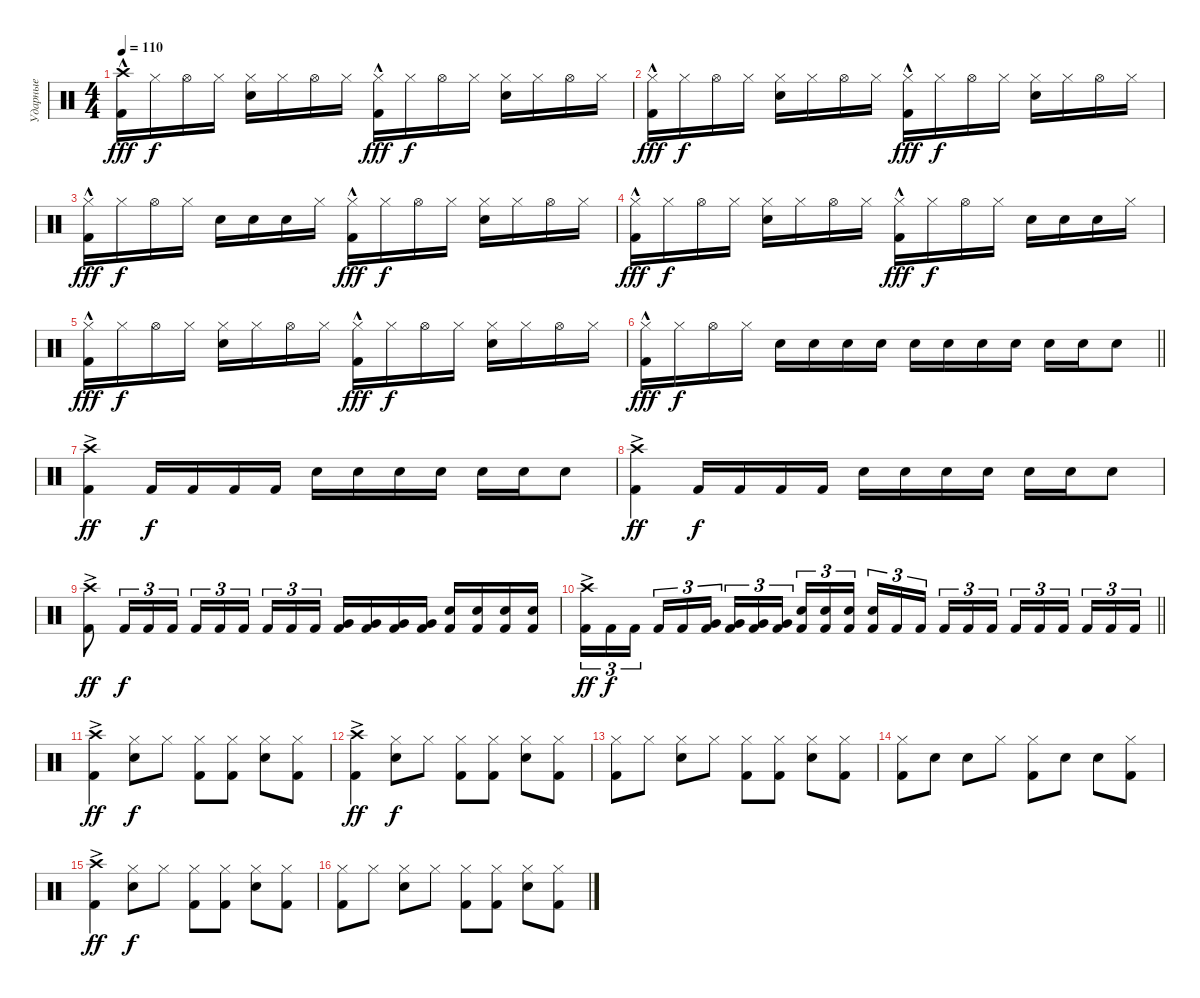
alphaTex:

\track ("Ударные" "Ударные") {instrument percussion}
\staff {score}
\articulation defaults
\ts (4 4)
\tempo 110
\clef neutral
\ks c
("Kick (hit) 2"{hac} "Crash high (hit)").16{dy fff} "Hi-Hat (closed)".16{dy f} "Hi-Hat (open)".16 "Hi-Hat (closed)".16 ("Snare (hit) 2" "Hi-Hat (closed)").16 "Hi-Hat (closed)".16 "Hi-Hat (open)".16 "Hi-Hat (closed)".16 ("Kick (hit) 2"{hac} "Hi-Hat (closed)").16{dy fff} "Hi-Hat (closed)".16{dy f} "Hi-Hat (open)".16 "Hi-Hat (closed)".16 ("Snare (hit) 2" "Hi-Hat (closed)").16 "Hi-Hat (closed)".16 "Hi-Hat (open)".16 "Hi-Hat (closed)".16 |
("Kick (hit) 2"{hac} "Hi-Hat (closed)").16{dy fff} "Hi-Hat (closed)".16{dy f} "Hi-Hat (open)".16 "Hi-Hat (closed)".16 ("Snare (hit) 2" "Hi-Hat (closed)").16 "Hi-Hat (closed)".16 "Hi-Hat (open)".16 "Hi-Hat (closed)".16 ("Kick (hit) 2"{hac} "Hi-Hat (closed)").16{dy fff} "Hi-Hat (closed)".16{dy f} "Hi-Hat (open)".16 "Hi-Hat (closed)".16 ("Snare (hit) 2" "Hi-Hat (closed)").16 "Hi-Hat (closed)".16 "Hi-Hat (open)".16 "Hi-Hat (closed)".16 |
("Kick (hit) 2"{hac} "Hi-Hat (closed)").16{dy fff} "Hi-Hat (closed)".16{dy f} "Hi-Hat (open)".16 "Hi-Hat (closed)".16 "Snare (hit) 2".16 "Snare (hit) 2".16 "Snare (hit) 2".16 "Hi-Hat (closed)".16 ("Kick (hit) 2"{hac} "Hi-Hat (closed)").16{dy fff} "Hi-Hat (closed)".16{dy f} "Hi-Hat (open)".16 "Hi-Hat (closed)".16 ("Snare (hit) 2" "Hi-Hat (closed)").16 "Hi-Hat (closed)".16 "Hi-Hat (open)".16 "Hi-Hat (closed)".16 |
("Kick (hit) 2"{hac} "Hi-Hat (closed)").16{dy fff} "Hi-Hat (closed)".16{dy f} "Hi-Hat (open)".16 "Hi-Hat (closed)".16 ("Snare (hit) 2" "Hi-Hat (closed)").16 "Hi-Hat (closed)".16 "Hi-Hat (open)".16 "Hi-Hat (closed)".16 ("Kick (hit) 2"{hac} "Hi-Hat (closed)").16{dy fff} "Hi-Hat (closed)".16{dy f} "Hi-Hat (open)".16 "Hi-Hat (closed)".16 "Snare (hit) 2".16 "Snare (hit) 2".16 "Snare (hit) 2".16 "Hi-Hat (closed)".16 |
("Kick (hit) 2"{hac} "Hi-Hat (closed)").16{dy fff} "Hi-Hat (closed)".16{dy f} "Hi-Hat (open)".16 "Hi-Hat (closed)".16 ("Snare (hit) 2" "Hi-Hat (closed)").16 "Hi-Hat (closed)".16 "Hi-Hat (open)".16 "Hi-Hat (closed)".16 ("Kick (hit) 2"{hac} "Hi-Hat (closed)").16{dy fff} "Hi-Hat (closed)".16{dy f} "Hi-Hat (open)".16 "Hi-Hat (closed)".16 ("Snare (hit) 2" "Hi-Hat (closed)").16 "Hi-Hat (closed)".16 "Hi-Hat (open)".16 "Hi-Hat (closed)".16 |
\barLineRight lightlight
("Kick (hit) 2"{hac} "Hi-Hat (closed)").16{dy fff} "Hi-Hat (closed)".16{dy f} "Hi-Hat (open)".16 "Hi-Hat (closed)".16 "Snare (hit) 2".16 "Snare (hit) 2".16 "Snare (hit) 2".16 "Snare (hit) 2".16 "Snare (hit) 2".16 "Snare (hit) 2".16 "Snare (hit) 2".16 "Snare (hit) 2".16 "Snare (hit) 2".16 "Snare (hit) 2".16 "Snare (hit) 2".8 |
("Kick (hit) 2" "Crash high (hit)"{ac}).4{dy ff} "Kick (hit) 2".16{dy f} "Kick (hit) 2".16 "Kick (hit) 2".16 "Kick (hit) 2".16 "Snare (hit) 2".16 "Snare (hit) 2".16 "Snare (hit) 2".16 "Snare (hit) 2".16 "Snare (hit) 2".16 "Snare (hit) 2".16 "Snare (hit) 2".8 |
("Kick (hit) 2" "Crash high (hit)"{ac}).4{dy ff} "Kick (hit) 2".16{dy f} "Kick (hit) 2".16 "Kick (hit) 2".16 "Kick (hit) 2".16 "Snare (hit) 2".16 "Snare (hit) 2".16 "Snare (hit) 2".16 "Snare (hit) 2".16 "Snare (hit) 2".16 "Snare (hit) 2".16 "Snare (hit) 2".8 |
("Kick (hit) 2" "Crash high (hit)"{ac}).8{dy ff} "Kick (hit) 2".16{tu (3 2) dy f} "Kick (hit) 2".16{tu (3 2)} "Kick (hit) 2".16{tu (3 2)} "Kick (hit) 2".16{tu (3 2)} "Kick (hit) 2".16{tu (3 2)} "Kick (hit) 2".16{tu (3 2) beam splitsecondary} "Kick (hit) 2".16{tu (3 2)} "Kick (hit) 2".16{tu (3 2)} "Kick (hit) 2".16{tu (3 2)} ("Kick (hit) 2" "Very Low Tom (hit)").16 ("Kick (hit) 2" "Very Low Tom (hit)").16 ("Kick (hit) 2" "Very Low Tom (hit)").16 ("Kick (hit) 2" "Very Low Tom (hit)").16 ("Kick (hit) 2" "Electric Snare (hit)").16 ("Kick (hit) 2" "Electric Snare (hit)").16 ("Kick (hit) 2" "Electric Snare (hit)").16 ("Kick (hit) 2" "Electric Snare (hit)").16 |
\barLineRight lightlight
("Kick (hit) 2" "Crash high (hit)"{ac}).16{tu (3 2) dy ff} "Kick (hit) 2".16{tu (3 2) dy f} "Kick (hit) 2".16{tu (3 2) beam splitsecondary} "Kick (hit) 2".16{tu (3 2)} "Kick (hit) 2".16{tu (3 2)} ("Kick (hit) 2" "Very Low Tom (hit)").16{tu (3 2)} ("Kick (hit) 2" "Very Low Tom (hit)").16{tu (3 2)} ("Kick (hit) 2" "Very Low Tom (hit)").16{tu (3 2)} ("Kick (hit) 2" "Very Low Tom (hit)").16{tu (3 2) beam splitsecondary} ("Kick (hit) 2" "Electric Snare (hit)").16{tu (3 2)} ("Kick (hit) 2" "Electric Snare (hit)").16{tu (3 2)} ("Kick (hit) 2" "Electric Snare (hit)").16{tu (3 2)} ("Kick (hit) 2" "Electric Snare (hit)").16{tu (3 2)} "Kick (hit) 2".16{tu (3 2)} "Kick (hit) 2".16{tu (3 2) beam splitsecondary} "Kick (hit) 2".16{tu (3 2)} "Kick (hit) 2".16{tu (3 2)} "Kick (hit) 2".16{tu (3 2)} "Kick (hit) 2".16{tu (3 2)} "Kick (hit) 2".16{tu (3 2)} "Kick (hit) 2".16{tu (3 2) beam splitsecondary} "Kick (hit) 2".16{tu (3 2)} "Kick (hit) 2".16{tu (3 2)} "Kick (hit) 2".16{tu (3 2)} |
("Kick (hit) 2" "Crash high (hit)"{ac}).4{dy ff} ("Snare (hit) 2" "Hi-Hat (closed)").8{dy f} "Hi-Hat (closed)".8 ("Kick (hit) 2" "Hi-Hat (closed)").8 ("Kick (hit) 2" "Hi-Hat (closed)").8 ("Snare (hit) 2" "Hi-Hat (closed)").8 ("Kick (hit) 2" "Hi-Hat (closed)").8 |
("Kick (hit) 2" "Crash high (hit)"{ac}).4{dy ff} ("Snare (hit) 2" "Hi-Hat (closed)").8{dy f} "Hi-Hat (closed)".8 ("Kick (hit) 2" "Hi-Hat (closed)").8 ("Kick (hit) 2" "Hi-Hat (closed)").8 ("Snare (hit) 2" "Hi-Hat (closed)").8 ("Kick (hit) 2" "Hi-Hat (closed)").8 |
("Kick (hit) 2" "Hi-Hat (closed)").8 "Hi-Hat (closed)".8 ("Snare (hit) 2" "Hi-Hat (closed)").8 "Hi-Hat (closed)".8 ("Kick (hit) 2" "Hi-Hat (closed)").8 ("Kick (hit) 2" "Hi-Hat (closed)").8 ("Snare (hit) 2" "Hi-Hat (closed)").8 ("Kick (hit) 2" "Hi-Hat (closed)").8 |
("Kick (hit) 2" "Hi-Hat (closed)").8 "Snare (hit) 2".8 "Snare (hit) 2".8 "Hi-Hat (closed)".8 ("Kick (hit) 2" "Hi-Hat (closed)").8 "Snare (hit) 2".8 "Snare (hit) 2".8 ("Kick (hit) 2" "Hi-Hat (closed)").8 |
("Kick (hit) 2" "Crash high (hit)"{ac}).4{dy ff} ("Snare (hit) 2" "Hi-Hat (closed)").8{dy f} "Hi-Hat (closed)".8 ("Kick (hit) 2" "Hi-Hat (closed)").8 ("Kick (hit) 2" "Hi-Hat (closed)").8 ("Snare (hit) 2" "Hi-Hat (closed)").8 ("Kick (hit) 2" "Hi-Hat (closed)").8 |
("Kick (hit) 2" "Hi-Hat (closed)").8 "Hi-Hat (closed)".8 ("Snare (hit) 2" "Hi-Hat (closed)").8 "Hi-Hat (closed)".8 ("Kick (hit) 2" "Hi-Hat (closed)").8 ("Kick (hit) 2" "Hi-Hat (closed)").8 ("Snare (hit) 2" "Hi-Hat (closed)").8 ("Kick (hit) 2" "Hi-Hat (closed)").8
